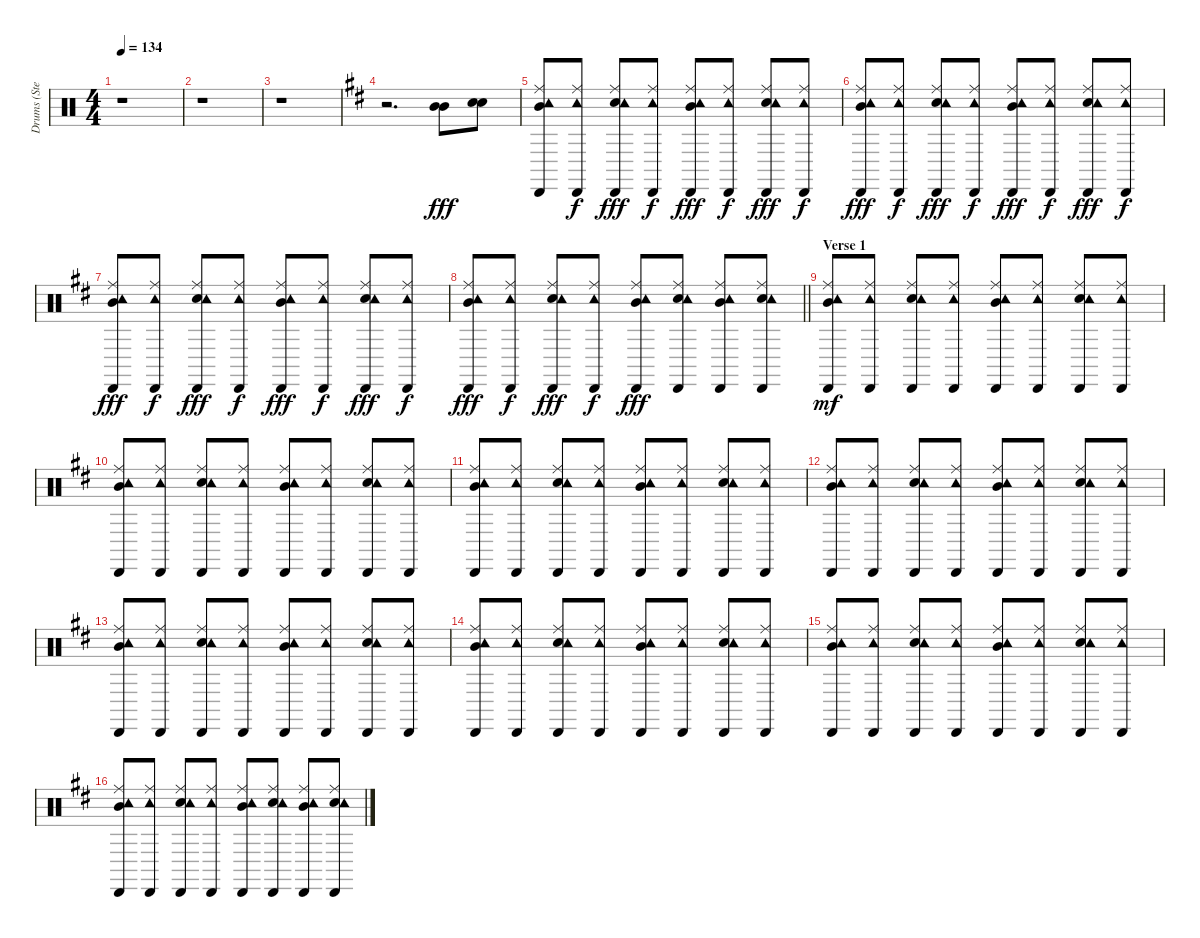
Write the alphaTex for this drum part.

\track ("Drums (Steven)" "Drums (Ste") {instrument percussion}
\staff {score}
\articulation defaults
\ts (4 4)
\tempo 134
\clef neutral
\ks c
r.1{dy fff} |
r.1 |
r.1 |
\ks d
r.2{d} ("Mid Tom (hit)" "Mid Tom (hit)").8 ("Electric Snare (hit)" "Electric Snare (hit)").8 |
("Mid Tom (hit)" "Ride (middle)" "Tambourine (hit)" "Cabasa (hit)").8 ("Ride (middle)" "Tambourine (hit)" "Cabasa (hit)").8{dy f} ("Electric Snare (hit)" "Ride (middle)" "Tambourine (hit)" "Cabasa (hit)").8{dy fff} ("Ride (middle)" "Tambourine (hit)" "Cabasa (hit)").8{dy f} ("Mid Tom (hit)" "Ride (middle)" "Tambourine (hit)" "Cabasa (hit)").8{dy fff} ("Ride (middle)" "Tambourine (hit)" "Cabasa (hit)").8{dy f} ("Electric Snare (hit)" "Ride (middle)" "Tambourine (hit)" "Cabasa (hit)").8{dy fff} ("Ride (middle)" "Tambourine (hit)" "Cabasa (hit)").8{dy f} |
("Mid Tom (hit)" "Ride (middle)" "Tambourine (hit)" "Cabasa (hit)").8{dy fff} ("Ride (middle)" "Tambourine (hit)" "Cabasa (hit)").8{dy f} ("Electric Snare (hit)" "Ride (middle)" "Tambourine (hit)" "Cabasa (hit)").8{dy fff} ("Ride (middle)" "Tambourine (hit)" "Cabasa (hit)").8{dy f} ("Mid Tom (hit)" "Ride (middle)" "Tambourine (hit)" "Cabasa (hit)").8{dy fff} ("Ride (middle)" "Tambourine (hit)" "Cabasa (hit)").8{dy f} ("Electric Snare (hit)" "Ride (middle)" "Tambourine (hit)" "Cabasa (hit)").8{dy fff} ("Ride (middle)" "Tambourine (hit)" "Cabasa (hit)").8{dy f} |
("Mid Tom (hit)" "Ride (middle)" "Tambourine (hit)" "Cabasa (hit)").8{dy fff} ("Ride (middle)" "Tambourine (hit)" "Cabasa (hit)").8{dy f} ("Electric Snare (hit)" "Ride (middle)" "Tambourine (hit)" "Cabasa (hit)").8{dy fff} ("Ride (middle)" "Tambourine (hit)" "Cabasa (hit)").8{dy f} ("Mid Tom (hit)" "Ride (middle)" "Tambourine (hit)" "Cabasa (hit)").8{dy fff} ("Ride (middle)" "Tambourine (hit)" "Cabasa (hit)").8{dy f} ("Electric Snare (hit)" "Ride (middle)" "Tambourine (hit)" "Cabasa (hit)").8{dy fff} ("Ride (middle)" "Tambourine (hit)" "Cabasa (hit)").8{dy f} |
\barLineRight lightlight
("Mid Tom (hit)" "Ride (middle)" "Tambourine (hit)" "Cabasa (hit)").8{dy fff} ("Ride (middle)" "Tambourine (hit)" "Cabasa (hit)").8{dy f} ("Electric Snare (hit)" "Ride (middle)" "Tambourine (hit)" "Cabasa (hit)").8{dy fff} ("Ride (middle)" "Tambourine (hit)" "Cabasa (hit)").8{dy f} ("Mid Tom (hit)" "Ride (middle)" "Tambourine (hit)" "Cabasa (hit)").8{dy fff} ("Electric Snare (hit)" "Ride (middle)" "Tambourine (hit)" "Cabasa (hit)").8 ("Mid Tom (hit)" "Ride (middle)" "Tambourine (hit)" "Cabasa (hit)").8 ("Electric Snare (hit)" "Ride (middle)" "Tambourine (hit)" "Cabasa (hit)").8 |
\section ("" "Verse 1")
("Mid Tom (hit)" "Ride (middle)" "Tambourine (hit)" "Cabasa (hit)").8{dy mf} ("Ride (middle)" "Tambourine (hit)" "Cabasa (hit)").8 ("Electric Snare (hit)" "Ride (middle)" "Tambourine (hit)" "Cabasa (hit)").8 ("Ride (middle)" "Tambourine (hit)" "Cabasa (hit)").8 ("Mid Tom (hit)" "Ride (middle)" "Tambourine (hit)" "Cabasa (hit)").8 ("Ride (middle)" "Tambourine (hit)" "Cabasa (hit)").8 ("Electric Snare (hit)" "Ride (middle)" "Tambourine (hit)" "Cabasa (hit)").8 ("Ride (middle)" "Tambourine (hit)" "Cabasa (hit)").8 |
("Mid Tom (hit)" "Ride (middle)" "Tambourine (hit)" "Cabasa (hit)").8 ("Ride (middle)" "Tambourine (hit)" "Cabasa (hit)").8 ("Electric Snare (hit)" "Ride (middle)" "Tambourine (hit)" "Cabasa (hit)").8 ("Ride (middle)" "Tambourine (hit)" "Cabasa (hit)").8 ("Mid Tom (hit)" "Ride (middle)" "Tambourine (hit)" "Cabasa (hit)").8 ("Ride (middle)" "Tambourine (hit)" "Cabasa (hit)").8 ("Electric Snare (hit)" "Ride (middle)" "Tambourine (hit)" "Cabasa (hit)").8 ("Ride (middle)" "Tambourine (hit)" "Cabasa (hit)").8 |
("Mid Tom (hit)" "Ride (middle)" "Tambourine (hit)" "Cabasa (hit)").8 ("Ride (middle)" "Tambourine (hit)" "Cabasa (hit)").8 ("Electric Snare (hit)" "Ride (middle)" "Tambourine (hit)" "Cabasa (hit)").8 ("Ride (middle)" "Tambourine (hit)" "Cabasa (hit)").8 ("Mid Tom (hit)" "Ride (middle)" "Tambourine (hit)" "Cabasa (hit)").8 ("Ride (middle)" "Tambourine (hit)" "Cabasa (hit)").8 ("Electric Snare (hit)" "Ride (middle)" "Tambourine (hit)" "Cabasa (hit)").8 ("Ride (middle)" "Tambourine (hit)" "Cabasa (hit)").8 |
("Mid Tom (hit)" "Ride (middle)" "Tambourine (hit)" "Cabasa (hit)").8 ("Ride (middle)" "Tambourine (hit)" "Cabasa (hit)").8 ("Electric Snare (hit)" "Ride (middle)" "Tambourine (hit)" "Cabasa (hit)").8 ("Ride (middle)" "Tambourine (hit)" "Cabasa (hit)").8 ("Mid Tom (hit)" "Ride (middle)" "Tambourine (hit)" "Cabasa (hit)").8 ("Ride (middle)" "Tambourine (hit)" "Cabasa (hit)").8 ("Electric Snare (hit)" "Ride (middle)" "Tambourine (hit)" "Cabasa (hit)").8 ("Ride (middle)" "Tambourine (hit)" "Cabasa (hit)").8 |
("Mid Tom (hit)" "Ride (middle)" "Tambourine (hit)" "Cabasa (hit)").8 ("Ride (middle)" "Tambourine (hit)" "Cabasa (hit)").8 ("Electric Snare (hit)" "Ride (middle)" "Tambourine (hit)" "Cabasa (hit)").8 ("Ride (middle)" "Tambourine (hit)" "Cabasa (hit)").8 ("Mid Tom (hit)" "Ride (middle)" "Tambourine (hit)" "Cabasa (hit)").8 ("Ride (middle)" "Tambourine (hit)" "Cabasa (hit)").8 ("Electric Snare (hit)" "Ride (middle)" "Tambourine (hit)" "Cabasa (hit)").8 ("Ride (middle)" "Tambourine (hit)" "Cabasa (hit)").8 |
("Mid Tom (hit)" "Ride (middle)" "Tambourine (hit)" "Cabasa (hit)").8 ("Ride (middle)" "Tambourine (hit)" "Cabasa (hit)").8 ("Electric Snare (hit)" "Ride (middle)" "Tambourine (hit)" "Cabasa (hit)").8 ("Ride (middle)" "Tambourine (hit)" "Cabasa (hit)").8 ("Mid Tom (hit)" "Ride (middle)" "Tambourine (hit)" "Cabasa (hit)").8 ("Ride (middle)" "Tambourine (hit)" "Cabasa (hit)").8 ("Electric Snare (hit)" "Ride (middle)" "Tambourine (hit)" "Cabasa (hit)").8 ("Ride (middle)" "Tambourine (hit)" "Cabasa (hit)").8 |
("Mid Tom (hit)" "Ride (middle)" "Tambourine (hit)" "Cabasa (hit)").8 ("Ride (middle)" "Tambourine (hit)" "Cabasa (hit)").8 ("Electric Snare (hit)" "Ride (middle)" "Tambourine (hit)" "Cabasa (hit)").8 ("Ride (middle)" "Tambourine (hit)" "Cabasa (hit)").8 ("Mid Tom (hit)" "Ride (middle)" "Tambourine (hit)" "Cabasa (hit)").8 ("Ride (middle)" "Tambourine (hit)" "Cabasa (hit)").8 ("Electric Snare (hit)" "Ride (middle)" "Tambourine (hit)" "Cabasa (hit)").8 ("Ride (middle)" "Tambourine (hit)" "Cabasa (hit)").8 |
("Mid Tom (hit)" "Ride (middle)" "Tambourine (hit)" "Cabasa (hit)").8 ("Ride (middle)" "Tambourine (hit)" "Cabasa (hit)").8 ("Electric Snare (hit)" "Ride (middle)" "Tambourine (hit)" "Cabasa (hit)").8 ("Ride (middle)" "Tambourine (hit)" "Cabasa (hit)").8 ("Mid Tom (hit)" "Ride (middle)" "Tambourine (hit)" "Cabasa (hit)").8 ("Electric Snare (hit)" "Ride (middle)" "Tambourine (hit)" "Cabasa (hit)").8 ("Mid Tom (hit)" "Ride (middle)" "Tambourine (hit)" "Cabasa (hit)").8 ("Electric Snare (hit)" "Ride (middle)" "Tambourine (hit)" "Cabasa (hit)").8
